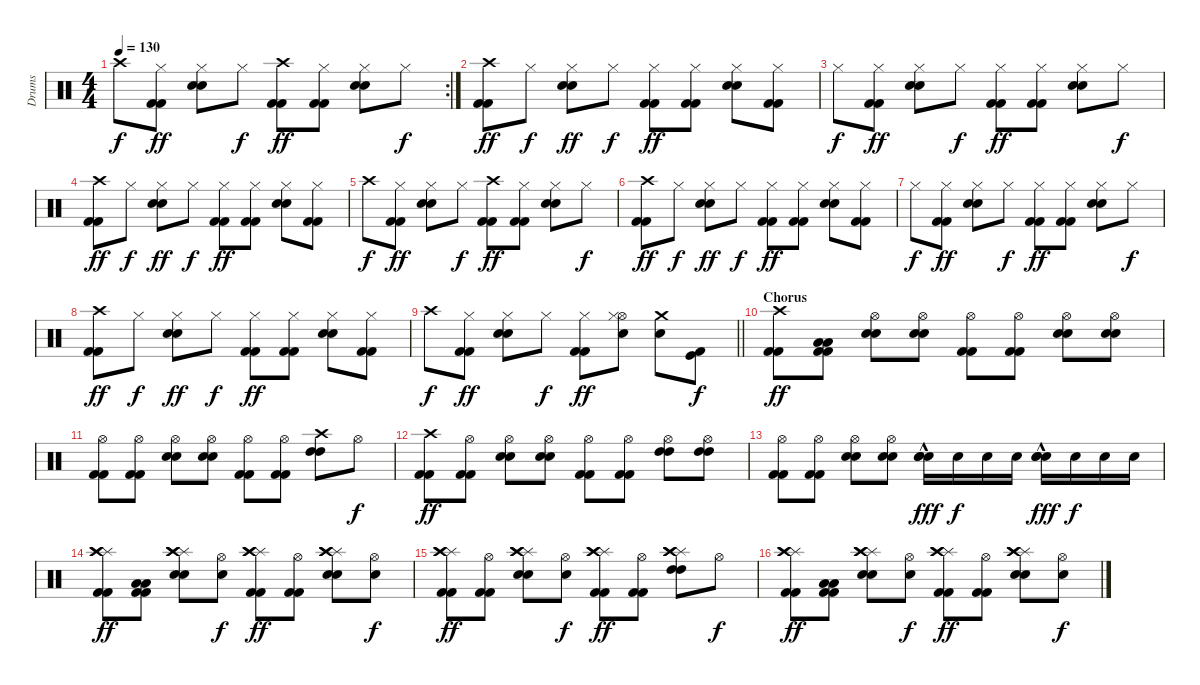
\track ("Drums" "Drums") {instrument percussion}
\staff {score}
\articulation defaults
\rc 2
\ts (4 4)
\tempo 130
\clef neutral
\ks c "Crash high (hit)".8{dy f}
("Kick (hit) 2" "Kick (hit) 2" "Hi-Hat (closed)").8{dy ff} ("Electric Snare (hit)" "Electric Snare (hit)" "Hi-Hat (closed)").8 "Hi-Hat (closed)".8{dy f} ("Kick (hit) 2" "Kick (hit) 2" "Crash high (hit)").8{dy ff} ("Kick (hit) 2" "Kick (hit) 2" "Hi-Hat (closed)").8 ("Electric Snare (hit)" "Electric Snare (hit)" "Hi-Hat (closed)").8 "Hi-Hat (closed)".8{dy f} |
("Kick (hit) 2" "Kick (hit) 2" "Crash high (hit)").8{dy ff} "Hi-Hat (closed)".8{dy f} ("Electric Snare (hit)" "Electric Snare (hit)" "Hi-Hat (closed)").8{dy ff} "Hi-Hat (closed)".8{dy f} ("Kick (hit) 2" "Kick (hit) 2" "Hi-Hat (closed)").8{dy ff} ("Kick (hit) 2" "Kick (hit) 2" "Hi-Hat (closed)").8 ("Electric Snare (hit)" "Electric Snare (hit)" "Hi-Hat (closed)").8 ("Kick (hit) 2" "Kick (hit) 2" "Hi-Hat (closed)").8 |
"Hi-Hat (closed)".8{dy f} ("Kick (hit) 2" "Kick (hit) 2" "Hi-Hat (closed)").8{dy ff} ("Electric Snare (hit)" "Electric Snare (hit)" "Hi-Hat (closed)").8 "Hi-Hat (closed)".8{dy f} ("Kick (hit) 2" "Kick (hit) 2" "Hi-Hat (closed)").8{dy ff} ("Kick (hit) 2" "Kick (hit) 2" "Hi-Hat (closed)").8 ("Electric Snare (hit)" "Electric Snare (hit)" "Hi-Hat (closed)").8 "Hi-Hat (closed)".8{dy f} |
("Kick (hit) 2" "Kick (hit) 2" "Crash high (hit)").8{dy ff} "Hi-Hat (closed)".8{dy f} ("Electric Snare (hit)" "Electric Snare (hit)" "Hi-Hat (closed)").8{dy ff} "Hi-Hat (closed)".8{dy f} ("Kick (hit) 2" "Kick (hit) 2" "Hi-Hat (closed)").8{dy ff} ("Kick (hit) 2" "Kick (hit) 2" "Hi-Hat (closed)").8 ("Electric Snare (hit)" "Electric Snare (hit)" "Hi-Hat (closed)").8 ("Kick (hit) 2" "Kick (hit) 2" "Hi-Hat (closed)").8 |
"Crash high (hit)".8{dy f} ("Kick (hit) 2" "Kick (hit) 2" "Hi-Hat (closed)").8{dy ff} ("Electric Snare (hit)" "Electric Snare (hit)" "Hi-Hat (closed)").8 "Hi-Hat (closed)".8{dy f} ("Kick (hit) 2" "Kick (hit) 2" "Crash high (hit)").8{dy ff} ("Kick (hit) 2" "Kick (hit) 2" "Hi-Hat (closed)").8 ("Electric Snare (hit)" "Electric Snare (hit)" "Hi-Hat (closed)").8 "Hi-Hat (closed)".8{dy f} |
("Kick (hit) 2" "Kick (hit) 2" "Crash high (hit)").8{dy ff} "Hi-Hat (closed)".8{dy f} ("Electric Snare (hit)" "Electric Snare (hit)" "Hi-Hat (closed)").8{dy ff} "Hi-Hat (closed)".8{dy f} ("Kick (hit) 2" "Kick (hit) 2" "Hi-Hat (closed)").8{dy ff} ("Kick (hit) 2" "Kick (hit) 2" "Hi-Hat (closed)").8 ("Electric Snare (hit)" "Electric Snare (hit)" "Hi-Hat (closed)").8 ("Kick (hit) 2" "Kick (hit) 2" "Hi-Hat (closed)").8 |
"Hi-Hat (closed)".8{dy f} ("Kick (hit) 2" "Kick (hit) 2" "Hi-Hat (closed)").8{dy ff} ("Electric Snare (hit)" "Electric Snare (hit)" "Hi-Hat (closed)").8 "Hi-Hat (closed)".8{dy f} ("Kick (hit) 2" "Kick (hit) 2" "Hi-Hat (closed)").8{dy ff} ("Kick (hit) 2" "Kick (hit) 2" "Hi-Hat (closed)").8 ("Electric Snare (hit)" "Electric Snare (hit)" "Hi-Hat (closed)").8 "Hi-Hat (closed)".8{dy f} |
("Kick (hit) 2" "Kick (hit) 2" "Crash high (hit)").8{dy ff} "Hi-Hat (closed)".8{dy f} ("Electric Snare (hit)" "Electric Snare (hit)" "Hi-Hat (closed)").8{dy ff} "Hi-Hat (closed)".8{dy f} ("Kick (hit) 2" "Kick (hit) 2" "Hi-Hat (closed)").8{dy ff} ("Kick (hit) 2" "Kick (hit) 2" "Hi-Hat (closed)").8 ("Electric Snare (hit)" "Electric Snare (hit)" "Hi-Hat (closed)").8 ("Kick (hit) 2" "Kick (hit) 2" "Hi-Hat (closed)").8 |
\barLineRight lightlight "Crash high (hit)".8{dy f}
("Kick (hit) 2" "Kick (hit) 2" "Hi-Hat (closed)").8{dy ff} ("Electric Snare (hit)" "Electric Snare (hit)" "Hi-Hat (closed)").8 "Hi-Hat (closed)".8{dy f} ("Kick (hit) 2" "Kick (hit) 2" "Hi-Hat (closed)").8{dy ff} ("Hi-Hat (open)" "Electric Snare (hit)" "Hi-Hat (closed)").8 ("Crash medium (hit)" "Electric Snare (hit)").8 ("Kick (hit) 2" "Kick (hit)").8{dy f} |
\section ("" "Chorus")
("Kick (hit) 2" "Kick (hit) 2" "Crash high (hit)").8{dy ff} ("Kick (hit) 2" "Kick (hit) 2" "Low Tom (hit)" "Low Tom (hit)").8 ("Electric Snare (hit)" "Electric Snare (hit)" "Hi-Hat (open)").8 ("Electric Snare (hit)" "Electric Snare (hit)" "Hi-Hat (open)").8 ("Kick (hit) 2" "Kick (hit) 2" "Hi-Hat (open)").8 ("Kick (hit) 2" "Kick (hit) 2" "Hi-Hat (open)").8 ("Electric Snare (hit)" "Electric Snare (hit)" "Hi-Hat (open)").8 ("Electric Snare (hit)" "Electric Snare (hit)" "Hi-Hat (open)").8 |
("Kick (hit) 2" "Kick (hit) 2" "Hi-Hat (open)").8 ("Kick (hit) 2" "Kick (hit) 2" "Hi-Hat (open)").8 ("Electric Snare (hit)" "Electric Snare (hit)" "Hi-Hat (open)").8 ("Electric Snare (hit)" "Electric Snare (hit)" "Hi-Hat (open)").8 ("Kick (hit) 2" "Kick (hit) 2" "Hi-Hat (open)").8 ("Kick (hit) 2" "Kick (hit) 2" "Hi-Hat (open)").8 ("High Tom (hit)" "High Tom (hit)" "Crash high (hit)").8 "Hi-Hat (open)".8{dy f} |
("Kick (hit) 2" "Kick (hit) 2" "Crash high (hit)").8{dy ff} ("Kick (hit) 2" "Kick (hit) 2" "Hi-Hat (open)").8 ("Electric Snare (hit)" "Electric Snare (hit)" "Hi-Hat (open)").8 ("Electric Snare (hit)" "Electric Snare (hit)" "Hi-Hat (open)").8 ("Kick (hit) 2" "Kick (hit) 2" "Hi-Hat (open)").8 ("Kick (hit) 2" "Kick (hit) 2" "Hi-Hat (open)").8 ("High Tom (hit)" "High Tom (hit)" "Hi-Hat (open)").8 ("High Tom (hit)" "High Tom (hit)" "Hi-Hat (open)").8 |
("Kick (hit) 2" "Kick (hit) 2" "Hi-Hat (open)").8 ("Kick (hit) 2" "Kick (hit) 2" "Hi-Hat (open)").8 ("Electric Snare (hit)" "Electric Snare (hit)" "Hi-Hat (open)").8 ("Electric Snare (hit)" "Electric Snare (hit)" "Hi-Hat (open)").8 ("Snare (hit) 2"{hac} "Electric Snare (hit)"{hac} "Snare (hit) 2"{hac}).16{dy fff} "Electric Snare (hit)".16{dy f} "Electric Snare (hit)".16 "Electric Snare (hit)".16 ("Snare (hit) 2"{hac} "Electric Snare (hit)"{hac} "Snare (hit) 2"{hac}).16{dy fff} "Electric Snare (hit)".16{dy f} "Electric Snare (hit)".16 "Electric Snare (hit)".16 |
("Kick (hit) 2" "Kick (hit) 2" "Splash (hit)" "Crash high (hit)" "Crash high (hit)").8{dy ff} ("Kick (hit) 2" "Kick (hit) 2" "Low Tom (hit)" "Low Tom (hit)").8 ("Electric Snare (hit)" "Electric Snare (hit)" "Splash (hit)" "Crash high (hit)" "Crash high (hit)").8 ("Electric Snare (hit)" "Hi-Hat (open)").8{dy f} ("Kick (hit) 2" "Kick (hit) 2" "Splash (hit)" "Crash high (hit)" "Crash high (hit)").8{dy ff} ("Kick (hit) 2" "Kick (hit) 2" "Hi-Hat (open)").8 ("Electric Snare (hit)" "Electric Snare (hit)" "Splash (hit)" "Crash high (hit)" "Crash high (hit)").8 ("Electric Snare (hit)" "Hi-Hat (open)").8{dy f} |
("Kick (hit) 2" "Kick (hit) 2" "Splash (hit)" "Crash high (hit)" "Crash high (hit)").8{dy ff} ("Kick (hit) 2" "Kick (hit) 2" "Hi-Hat (open)").8 ("Electric Snare (hit)" "Electric Snare (hit)" "Splash (hit)" "Crash high (hit)" "Crash high (hit)").8 ("Electric Snare (hit)" "Hi-Hat (open)").8{dy f} ("Kick (hit) 2" "Kick (hit) 2" "Splash (hit)" "Crash high (hit)" "Crash high (hit)").8{dy ff} ("Kick (hit) 2" "Kick (hit) 2" "Hi-Hat (open)").8 ("High Tom (hit)" "High Tom (hit)" "Splash (hit)" "Crash high (hit)" "Crash high (hit)").8 "Hi-Hat (open)".8{dy f} |
("Kick (hit) 2" "Kick (hit) 2" "Splash (hit)" "Crash high (hit)" "Crash high (hit)").8{dy ff} ("Kick (hit) 2" "Kick (hit) 2" "Low Tom (hit)" "Low Tom (hit)").8 ("Electric Snare (hit)" "Electric Snare (hit)" "Splash (hit)" "Crash high (hit)" "Crash high (hit)").8 ("Electric Snare (hit)" "Hi-Hat (open)").8{dy f} ("Kick (hit) 2" "Kick (hit) 2" "Splash (hit)" "Crash high (hit)" "Crash high (hit)").8{dy ff} ("Kick (hit) 2" "Kick (hit) 2" "Hi-Hat (open)").8 ("Electric Snare (hit)" "Electric Snare (hit)" "Splash (hit)" "Crash high (hit)" "Crash high (hit)").8 ("Electric Snare (hit)" "Hi-Hat (open)").8{dy f}
